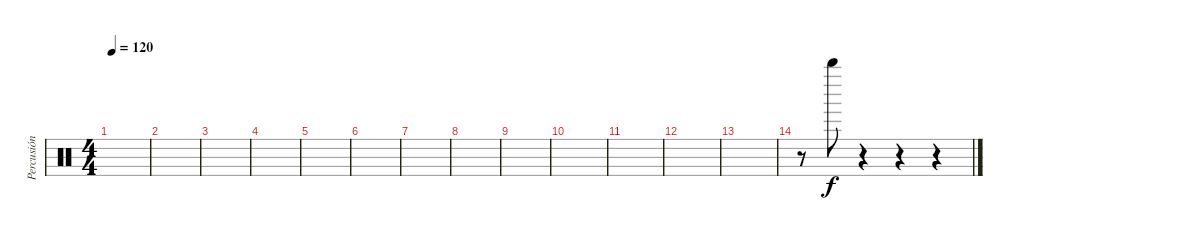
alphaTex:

\track ("Percusión" "Percusión") {instrument percussion}
\staff {score}
\articulation defaults
\ts (4 4)
\tempo 120
\clef neutral
\ks c
|
|
|
|
|
|
|
|
|
|
|
|
|
r.8 "Whistle high (hit)".8 r.4 r.4 r.4
